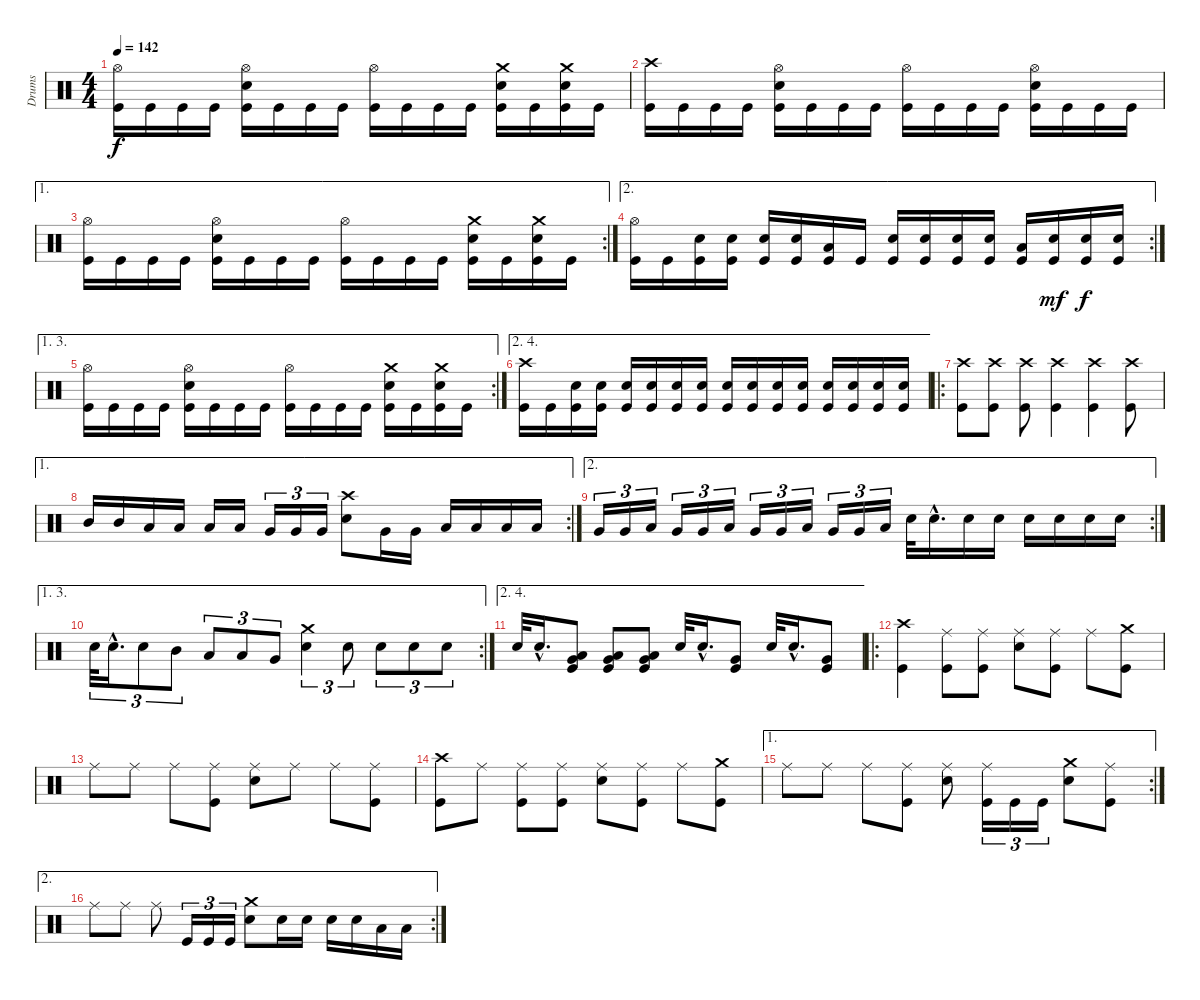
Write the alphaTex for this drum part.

\track ("Drums" "Drums") {instrument percussion}
\staff {score}
\articulation defaults
\ts (4 4)
\tempo 142
\clef neutral
\ks c
("Hi-Hat (open)" "Kick (hit)").16{dy f} "Kick (hit)".16 "Kick (hit)".16 "Kick (hit)".16 ("Hi-Hat (open)" "Electric Snare (hit)" "Kick (hit)").16 "Kick (hit)".16 "Kick (hit)".16 "Kick (hit)".16 ("Hi-Hat (open)" "Kick (hit)").16 "Kick (hit)".16 "Kick (hit)".16 "Kick (hit)".16 ("Crash medium (hit)" "Electric Snare (hit)" "Kick (hit)").16 "Kick (hit)".16 ("Crash medium (hit)" "Electric Snare (hit)" "Kick (hit)").16 "Kick (hit)".16 |
("Crash high (hit)" "Kick (hit)").16 "Kick (hit)".16 "Kick (hit)".16 "Kick (hit)".16 ("Hi-Hat (open)" "Electric Snare (hit)" "Kick (hit)").16 "Kick (hit)".16 "Kick (hit)".16 "Kick (hit)".16 ("Hi-Hat (open)" "Kick (hit)").16 "Kick (hit)".16 "Kick (hit)".16 "Kick (hit)".16 ("Hi-Hat (open)" "Electric Snare (hit)" "Kick (hit)").16 "Kick (hit)".16 "Kick (hit)".16 "Kick (hit)".16 |
\ae 1
\rc 2
("Hi-Hat (open)" "Kick (hit)").16 "Kick (hit)".16 "Kick (hit)".16 "Kick (hit)".16 ("Hi-Hat (open)" "Electric Snare (hit)" "Kick (hit)").16 "Kick (hit)".16 "Kick (hit)".16 "Kick (hit)".16 ("Hi-Hat (open)" "Kick (hit)").16 "Kick (hit)".16 "Kick (hit)".16 "Kick (hit)".16 ("Crash medium (hit)" "Electric Snare (hit)" "Kick (hit)").16 "Kick (hit)".16 ("Crash medium (hit)" "Electric Snare (hit)" "Kick (hit)").16 "Kick (hit)".16 |
\ae 2
\rc 2
("Hi-Hat (open)" "Kick (hit)").16 "Kick (hit)".16 ("Electric Snare (hit)" "Kick (hit)").16 ("Electric Snare (hit)" "Kick (hit)").16 ("Electric Snare (hit)" "Kick (hit)").16 ("Electric Snare (hit)" "Kick (hit)").16 ("Low Tom (hit)" "Kick (hit)").16 "Kick (hit)".16 ("Electric Snare (hit)" "Kick (hit)").16 ("Electric Snare (hit)" "Kick (hit)").16 ("Electric Snare (hit)" "Kick (hit)").16 ("Electric Snare (hit)" "Kick (hit)").16 ("Low Tom (hit)" "Kick (hit)").16 ("Electric Snare (hit)" "Kick (hit)").16{dy mf} ("Electric Snare (hit)" "Kick (hit)").16{dy f} ("Electric Snare (hit)" "Kick (hit)").16 |
\ae (1 3)
\rc 2
("Hi-Hat (open)" "Kick (hit)").16 "Kick (hit)".16 "Kick (hit)".16 "Kick (hit)".16 ("Hi-Hat (open)" "Electric Snare (hit)" "Kick (hit)").16 "Kick (hit)".16 "Kick (hit)".16 "Kick (hit)".16 ("Hi-Hat (open)" "Kick (hit)").16 "Kick (hit)".16 "Kick (hit)".16 "Kick (hit)".16 ("Crash medium (hit)" "Electric Snare (hit)" "Kick (hit)").16 "Kick (hit)".16 ("Crash medium (hit)" "Electric Snare (hit)" "Kick (hit)").16 "Kick (hit)".16 |
\ae (2 4)
("Crash high (hit)" "Kick (hit)").16 "Kick (hit)".16 ("Electric Snare (hit)" "Kick (hit)").16 ("Electric Snare (hit)" "Kick (hit)").16 ("Electric Snare (hit)" "Kick (hit)").16 ("Electric Snare (hit)" "Kick (hit)").16 ("Electric Snare (hit)" "Kick (hit)").16 ("Electric Snare (hit)" "Kick (hit)").16 ("Electric Snare (hit)" "Kick (hit)").16 ("Electric Snare (hit)" "Kick (hit)").16 ("Electric Snare (hit)" "Kick (hit)").16 ("Electric Snare (hit)" "Kick (hit)").16 ("Electric Snare (hit)" "Kick (hit)").16 ("Electric Snare (hit)" "Kick (hit)").16 ("Electric Snare (hit)" "Kick (hit)").16 ("Electric Snare (hit)" "Kick (hit)").16 |
\ro
("Crash high (hit)" "Kick (hit)").8 ("Crash high (hit)" "Kick (hit)").8 ("Crash high (hit)" "Kick (hit)").8 ("Crash high (hit)" "Kick (hit)").4 ("Crash high (hit)" "Kick (hit)").4 ("Crash high (hit)" "Kick (hit)").8 |
\ae 1
\rc 2 "Mid Tom (hit)".16 "Mid Tom (hit)".16 "Low Tom (hit)".16 "Low Tom (hit)".16 "Low Tom (hit)".16 "Low Tom (hit)".16 "Very Low Tom (hit)".16{tu (3 2)} "Very Low Tom (hit)".16{tu (3 2)} "Very Low Tom (hit)".16{tu (3 2)}
("Crash high (hit)" "Electric Snare (hit)").8 "Very Low Tom (hit)".16 "Very Low Tom (hit)".16 "Low Floor Tom (hit)".16 "Low Floor Tom (hit)".16 "Low Floor Tom (hit)".16 "Low Floor Tom (hit)".16 |
\ae 2
\rc 2 "Very Low Tom (hit)".16{tu (3 2)} "Very Low Tom (hit)".16{tu (3 2)} "Low Floor Tom (hit)".16{tu (3 2)} "Very Low Tom (hit)".16{tu (3 2)} "Very Low Tom (hit)".16{tu (3 2)} "Low Floor Tom (hit)".16{tu (3 2)} "Very Low Tom (hit)".16{tu (3 2)} "Very Low Tom (hit)".16{tu (3 2)} "Low Floor Tom (hit)".16{tu (3 2)} "Very Low Tom (hit)".16{tu (3 2)} "Very Low Tom (hit)".16{tu (3 2)} "Low Floor Tom (hit)".16{tu (3 2)} "Electric Snare (hit)".32 "Electric Snare (hit)"{hac}.16{d} "Electric Snare (hit)".16 "Electric Snare (hit)".16 "Electric Snare (hit)".16 "Electric Snare (hit)".16 "Electric Snare (hit)".16 "Electric Snare (hit)".16
|
\ae (1 3)
\rc 2 "Electric Snare (hit)".32{tu (3 2)} "Electric Snare (hit)"{hac}.16{d tu (3 2)} "Electric Snare (hit)".8{tu (3 2)} "Mid Tom (hit)".8{tu (3 2)} "Low Tom (hit)".8{tu (3 2)} "Low Tom (hit)".8{tu (3 2)} "Very Low Tom (hit)".8{tu (3 2)}
("Crash medium (hit)" "Electric Snare (hit)").4{tu (3 2)} "Electric Snare (hit)".8{tu (3 2)} "Electric Snare (hit)".8{tu (3 2)} "Electric Snare (hit)".8{tu (3 2)} "Electric Snare (hit)".8{tu (3 2)} |
\ae (2 4)
"Electric Snare (hit)".32 "Electric Snare (hit)"{hac}.16{d} ("Low Floor Tom (hit)" "Very Low Tom (hit)" "Kick (hit)").8 ("Low Floor Tom (hit)" "Very Low Tom (hit)" "Kick (hit)").8 ("Low Floor Tom (hit)" "Very Low Tom (hit)" "Kick (hit)").8 "Electric Snare (hit)".32 "Electric Snare (hit)"{hac}.16{d} ("Very Low Tom (hit)" "Kick (hit)").8 "Electric Snare (hit)".32 "Electric Snare (hit)"{hac}.16{d} ("Very Low Tom (hit)" "Kick (hit)").8 |
\ro
("Crash high (hit)" "Kick (hit)").4 ("Ride (middle)" "Kick (hit)").8 ("Ride (middle)" "Kick (hit)").8 ("Ride (middle)" "Electric Snare (hit)").8 ("Ride (middle)" "Kick (hit)").8 "Ride (middle)".8 ("Crash medium (hit)" "Kick (hit)").8 |
"Ride (middle)".8 "Ride (middle)".8 "Ride (middle)".8 ("Ride (middle)" "Kick (hit)").8 ("Ride (middle)" "Electric Snare (hit)").8 "Ride (middle)".8 "Ride (middle)".8 ("Ride (middle)" "Kick (hit)").8 |
("Crash high (hit)" "Kick (hit)").8 "Ride (middle)".8 ("Ride (middle)" "Kick (hit)").8 ("Ride (middle)" "Kick (hit)").8 ("Ride (middle)" "Electric Snare (hit)").8 ("Ride (middle)" "Kick (hit)").8 "Ride (middle)".8 ("Crash medium (hit)" "Kick (hit)").8 |
\ae 1
\rc 2 "Ride (middle)".8 "Ride (middle)".8 "Ride (middle)".8
("Ride (middle)" "Kick (hit)").8 ("Ride (middle)" "Electric Snare (hit)").8 ("Ride (middle)" "Kick (hit)").16{tu (3 2)} "Kick (hit)".16{tu (3 2)} "Kick (hit)".16{tu (3 2)} ("Crash medium (hit)" "Electric Snare (hit)").8 ("Ride (middle)" "Kick (hit)").8 |
\ae 2
\rc 2 "Ride (middle)".8 "Ride (middle)".8 "Ride (middle)".8 "Kick (hit)".16{tu (3 2)} "Kick (hit)".16{tu (3 2)} "Kick (hit)".16{tu (3 2)}
("Crash medium (hit)" "Electric Snare (hit)").8 "Electric Snare (hit)".16 "Electric Snare (hit)".16 "Electric Snare (hit)".16 "Electric Snare (hit)".16 "Low Tom (hit)".16 "Low Tom (hit)".16
